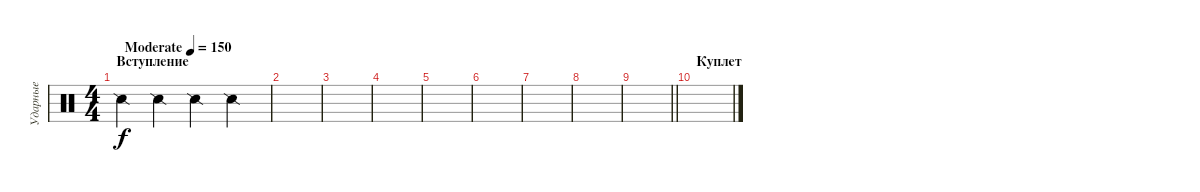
\track ("Ударные" "Ударные") {instrument percussion}
\staff {score}
\articulation defaults
\ts (4 4)
\section ("" "Вступление")
\tempo (150 "Moderate")
\clef neutral
\ks c "Snare (side stick) 2".4{dy f} "Snare (side stick) 2".4 "Snare (side stick) 2".4 "Snare (side stick) 2".4
|
|
|
|
|
|
|
|
\barLineRight lightlight
|
\section ("" "Куплет")
